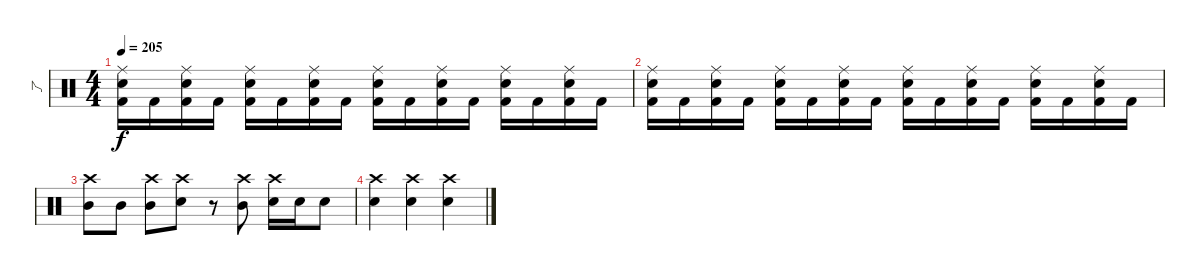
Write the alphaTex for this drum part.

\track ("了" "了") {instrument percussion}
\staff {score}
\articulation defaults
\ts (4 4)
\tempo 205
\clef neutral
\ks c
("Ride (middle)" "Snare (hit) 2" "Kick (hit) 2").16{dy f} "Kick (hit) 2".16 ("Ride (middle)" "Snare (hit) 2" "Kick (hit) 2").16 "Kick (hit) 2".16 ("Ride (middle)" "Snare (hit) 2" "Kick (hit) 2").16 "Kick (hit) 2".16 ("Ride (middle)" "Snare (hit) 2" "Kick (hit) 2").16 "Kick (hit) 2".16 ("Ride (middle)" "Snare (hit) 2" "Kick (hit) 2").16 "Kick (hit) 2".16 ("Ride (middle)" "Snare (hit) 2" "Kick (hit) 2").16 "Kick (hit) 2".16 ("Ride (middle)" "Snare (hit) 2" "Kick (hit) 2").16 "Kick (hit) 2".16 ("Ride (middle)" "Snare (hit) 2" "Kick (hit) 2").16 "Kick (hit) 2".16 |
("Ride (middle)" "Snare (hit) 2" "Kick (hit) 2").16 "Kick (hit) 2".16 ("Ride (middle)" "Snare (hit) 2" "Kick (hit) 2").16 "Kick (hit) 2".16 ("Ride (middle)" "Snare (hit) 2" "Kick (hit) 2").16 "Kick (hit) 2".16 ("Ride (middle)" "Snare (hit) 2" "Kick (hit) 2").16 "Kick (hit) 2".16 ("Ride (middle)" "Snare (hit) 2" "Kick (hit) 2").16 "Kick (hit) 2".16 ("Ride (middle)" "Snare (hit) 2" "Kick (hit) 2").16 "Kick (hit) 2".16 ("Ride (middle)" "Snare (hit) 2" "Kick (hit) 2").16 "Kick (hit) 2".16 ("Ride (middle)" "Snare (hit) 2" "Kick (hit) 2").16 "Kick (hit) 2".16 |
("Crash high (hit)" "Mid Tom (hit)").8 "Mid Tom (hit)".8 ("Crash high (hit)" "Mid Tom (hit)").8 ("Crash high (hit)" "Snare (hit) 2").8 r.8 ("Crash high (hit)" "Mid Tom (hit)").8 ("Crash high (hit)" "Electric Snare (hit)").16 "Electric Snare (hit)".16 "Snare (hit) 2".8 |
("Crash high (hit)" "Snare (hit) 2").4 ("Crash high (hit)" "Snare (hit) 2").4 ("Crash high (hit)" "Snare (hit) 2").4
